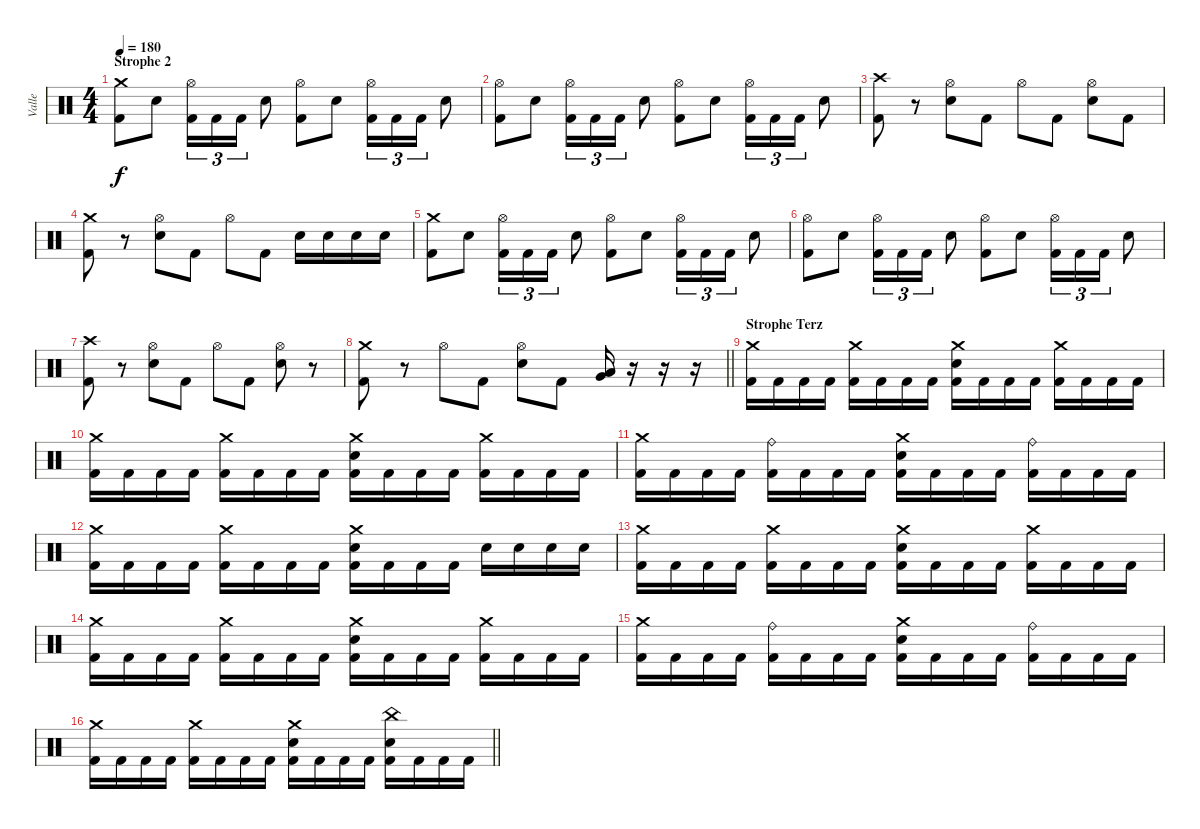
\track ("Valle" "Valle") {instrument percussion}
\staff {score}
\articulation defaults
\ts (4 4)
\section ("" "Strophe 2")
\tempo 180
\clef neutral
\ks c
("Crash medium (hit)" "Kick (hit) 2").8{dy f volume 10} "Snare (hit) 2".8 ("Hi-Hat (open)" "Kick (hit) 2").16{tu (3 2)} "Kick (hit) 2".16{tu (3 2)} "Kick (hit) 2".16{tu (3 2)} "Snare (hit) 2".8 ("Hi-Hat (open)" "Kick (hit) 2").8 "Snare (hit) 2".8 ("Hi-Hat (open)" "Kick (hit) 2").16{tu (3 2)} "Kick (hit) 2".16{tu (3 2)} "Kick (hit) 2".16{tu (3 2)} "Snare (hit) 2".8 |
("Hi-Hat (open)" "Kick (hit) 2").8 "Snare (hit) 2".8 ("Hi-Hat (open)" "Kick (hit) 2").16{tu (3 2)} "Kick (hit) 2".16{tu (3 2)} "Kick (hit) 2".16{tu (3 2)} "Snare (hit) 2".8 ("Hi-Hat (open)" "Kick (hit) 2").8 "Snare (hit) 2".8 ("Hi-Hat (open)" "Kick (hit) 2").16{tu (3 2)} "Kick (hit) 2".16{tu (3 2)} "Kick (hit) 2".16{tu (3 2)} "Snare (hit) 2".8 |
("Crash high (hit)" "Kick (hit) 2").8 r.8 ("Hi-Hat (open)" "Snare (hit) 2").8 "Kick (hit) 2".8 "Hi-Hat (open)".8 "Kick (hit) 2".8 ("Hi-Hat (open)" "Snare (hit) 2").8 "Kick (hit) 2".8 |
("Crash medium (hit)" "Kick (hit) 2").8 r.8 ("Hi-Hat (open)" "Snare (hit) 2").8 "Kick (hit) 2".8 "Hi-Hat (open)".8 "Kick (hit) 2".8 "Snare (hit) 2".16 "Snare (hit) 2".16 "Snare (hit) 2".16 "Snare (hit) 2".16 |
("Crash medium (hit)" "Kick (hit) 2").8 "Snare (hit) 2".8 ("Hi-Hat (open)" "Kick (hit) 2").16{tu (3 2)} "Kick (hit) 2".16{tu (3 2)} "Kick (hit) 2".16{tu (3 2)} "Snare (hit) 2".8 ("Hi-Hat (open)" "Kick (hit) 2").8 "Snare (hit) 2".8 ("Hi-Hat (open)" "Kick (hit) 2").16{tu (3 2)} "Kick (hit) 2".16{tu (3 2)} "Kick (hit) 2".16{tu (3 2)} "Snare (hit) 2".8 |
("Hi-Hat (open)" "Kick (hit) 2").8 "Snare (hit) 2".8 ("Hi-Hat (open)" "Kick (hit) 2").16{tu (3 2)} "Kick (hit) 2".16{tu (3 2)} "Kick (hit) 2".16{tu (3 2)} "Snare (hit) 2".8 ("Hi-Hat (open)" "Kick (hit) 2").8 "Snare (hit) 2".8 ("Hi-Hat (open)" "Kick (hit) 2").16{tu (3 2)} "Kick (hit) 2".16{tu (3 2)} "Kick (hit) 2".16{tu (3 2)} "Snare (hit) 2".8 |
("Crash high (hit)" "Kick (hit) 2").8 r.8 ("Hi-Hat (open)" "Snare (hit) 2").8 "Kick (hit) 2".8 "Hi-Hat (open)".8 "Kick (hit) 2".8 ("Hi-Hat (open)" "Snare (hit) 2").8 r.8 |
\barLineRight lightlight
("Crash medium (hit)" "Kick (hit) 2").8 r.8 "Hi-Hat (open)".8 "Kick (hit) 2".8 ("Hi-Hat (open)" "Snare (hit) 2").8 "Kick (hit) 2".8 ("Very Low Tom (hit)" "Low Floor Tom (hit)").16 r.16 r.16 r.16 |
\section ("" "Strophe Terz")
("Crash medium (hit)" "Kick (hit) 2").16 "Kick (hit) 2".16 "Kick (hit) 2".16 "Kick (hit) 2".16 ("Crash medium (hit)" "Kick (hit) 2").16 "Kick (hit) 2".16 "Kick (hit) 2".16 "Kick (hit) 2".16 ("Crash medium (hit)" "Snare (hit) 2" "Kick (hit) 2").16 "Kick (hit) 2".16 "Kick (hit) 2".16 "Kick (hit) 2".16 ("Crash medium (hit)" "Kick (hit) 2").16 "Kick (hit) 2".16 "Kick (hit) 2".16 "Kick (hit) 2".16 |
("Crash medium (hit)" "Kick (hit) 2").16 "Kick (hit) 2".16 "Kick (hit) 2".16 "Kick (hit) 2".16 ("Crash medium (hit)" "Kick (hit) 2").16 "Kick (hit) 2".16 "Kick (hit) 2".16 "Kick (hit) 2".16 ("Crash medium (hit)" "Snare (hit) 2" "Kick (hit) 2").16 "Kick (hit) 2".16 "Kick (hit) 2".16 "Kick (hit) 2".16 ("Crash medium (hit)" "Kick (hit) 2").16 "Kick (hit) 2".16 "Kick (hit) 2".16 "Kick (hit) 2".16 |
("Crash medium (hit)" "Kick (hit) 2").16 "Kick (hit) 2".16 "Kick (hit) 2".16 "Kick (hit) 2".16 ("Ride (bell)" "Kick (hit) 2").16 "Kick (hit) 2".16 "Kick (hit) 2".16 "Kick (hit) 2".16 ("Crash medium (hit)" "Snare (hit) 2" "Kick (hit) 2").16 "Kick (hit) 2".16 "Kick (hit) 2".16 "Kick (hit) 2".16 ("Ride (bell)" "Kick (hit) 2").16 "Kick (hit) 2".16 "Kick (hit) 2".16 "Kick (hit) 2".16 |
("Crash medium (hit)" "Kick (hit) 2").16 "Kick (hit) 2".16 "Kick (hit) 2".16 "Kick (hit) 2".16 ("Crash medium (hit)" "Kick (hit) 2").16 "Kick (hit) 2".16 "Kick (hit) 2".16 "Kick (hit) 2".16 ("Crash medium (hit)" "Snare (hit) 2" "Kick (hit) 2").16 "Kick (hit) 2".16 "Kick (hit) 2".16 "Kick (hit) 2".16 "Snare (hit) 2".16 "Snare (hit) 2".16 "Snare (hit) 2".16 "Snare (hit) 2".16 |
("Crash medium (hit)" "Kick (hit) 2").16 "Kick (hit) 2".16 "Kick (hit) 2".16 "Kick (hit) 2".16 ("Crash medium (hit)" "Kick (hit) 2").16 "Kick (hit) 2".16 "Kick (hit) 2".16 "Kick (hit) 2".16 ("Crash medium (hit)" "Snare (hit) 2" "Kick (hit) 2").16 "Kick (hit) 2".16 "Kick (hit) 2".16 "Kick (hit) 2".16 ("Crash medium (hit)" "Kick (hit) 2").16 "Kick (hit) 2".16 "Kick (hit) 2".16 "Kick (hit) 2".16 |
("Crash medium (hit)" "Kick (hit) 2").16 "Kick (hit) 2".16 "Kick (hit) 2".16 "Kick (hit) 2".16 ("Crash medium (hit)" "Kick (hit) 2").16 "Kick (hit) 2".16 "Kick (hit) 2".16 "Kick (hit) 2".16 ("Crash medium (hit)" "Snare (hit) 2" "Kick (hit) 2").16 "Kick (hit) 2".16 "Kick (hit) 2".16 "Kick (hit) 2".16 ("Crash medium (hit)" "Kick (hit) 2").16 "Kick (hit) 2".16 "Kick (hit) 2".16 "Kick (hit) 2".16 |
("Crash medium (hit)" "Kick (hit) 2").16 "Kick (hit) 2".16 "Kick (hit) 2".16 "Kick (hit) 2".16 ("Ride (bell)" "Kick (hit) 2").16 "Kick (hit) 2".16 "Kick (hit) 2".16 "Kick (hit) 2".16 ("Crash medium (hit)" "Snare (hit) 2" "Kick (hit) 2").16 "Kick (hit) 2".16 "Kick (hit) 2".16 "Kick (hit) 2".16 ("Ride (bell)" "Kick (hit) 2").16 "Kick (hit) 2".16 "Kick (hit) 2".16 "Kick (hit) 2".16 |
\barLineRight lightlight
("Crash medium (hit)" "Kick (hit) 2").16 "Kick (hit) 2".16 "Kick (hit) 2".16 "Kick (hit) 2".16 ("Crash medium (hit)" "Kick (hit) 2").16 "Kick (hit) 2".16 "Kick (hit) 2".16 "Kick (hit) 2".16 ("Crash medium (hit)" "Snare (hit) 2" "Kick (hit) 2").16 "Kick (hit) 2".16 "Kick (hit) 2".16 "Kick (hit) 2".16 ("China (hit)" "Snare (hit) 2" "Kick (hit) 2").16 "Kick (hit) 2".16 "Kick (hit) 2".16 "Kick (hit) 2".16
